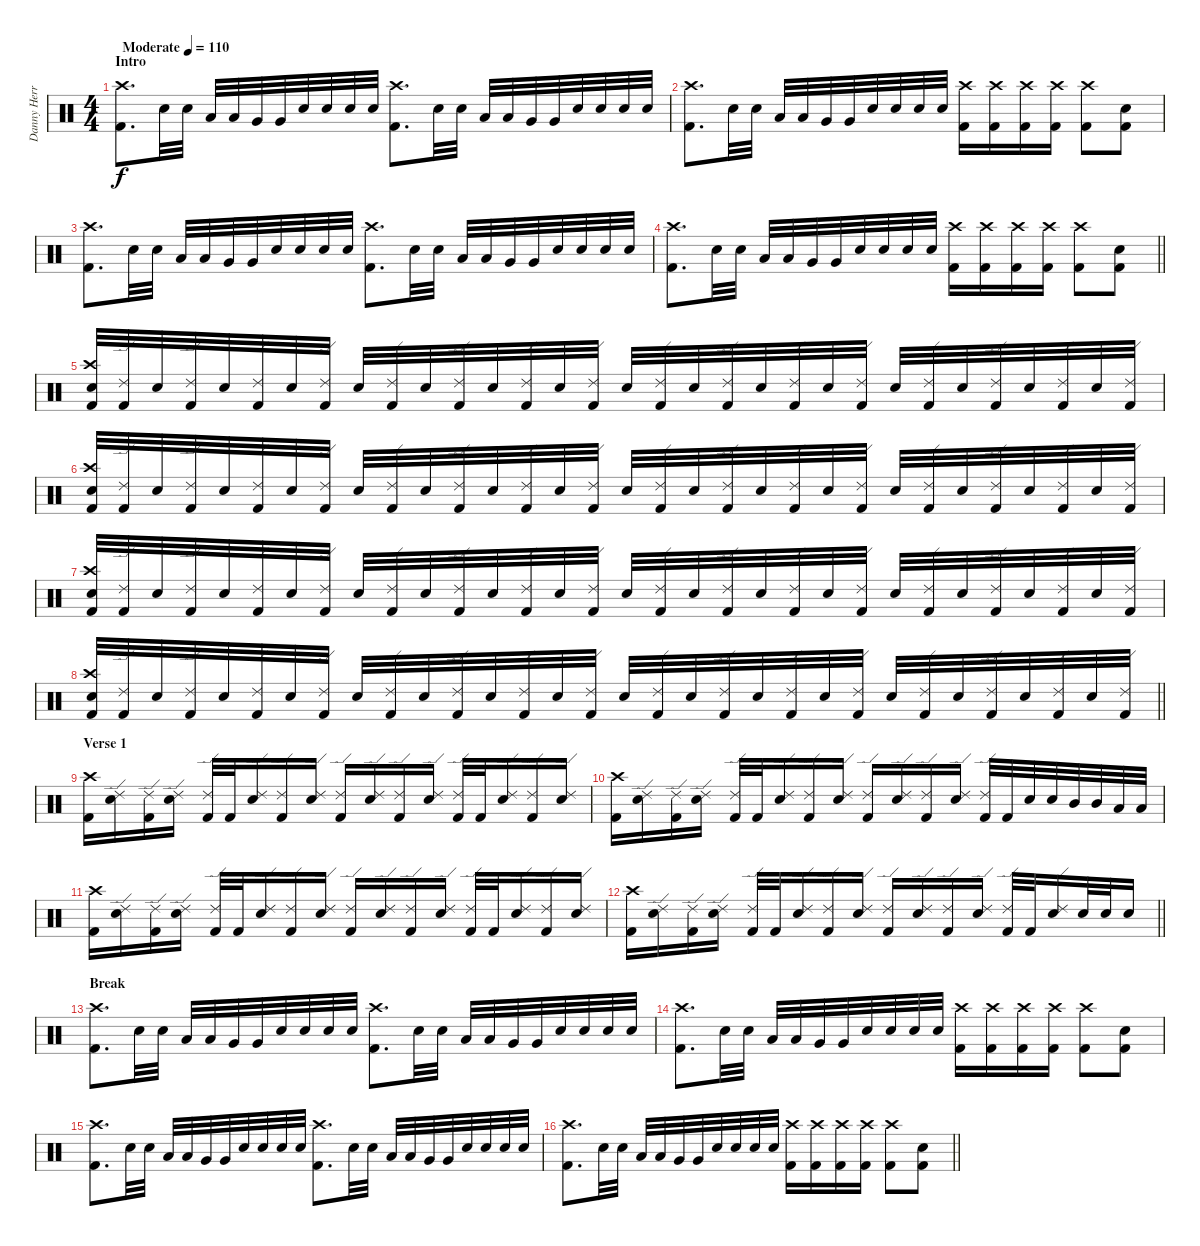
\track ("Danny Herrera" "Danny Herr") {instrument percussion}
\staff {score}
\articulation defaults
\ts (4 4)
\section ("" "Intro")
\tempo (110 "Moderate")
\clef neutral
\ks c
("Kick (hit) 2" "Crash high (hit)").8{d dy f} "Snare (hit) 2".32 "Snare (hit) 2".32 "Low Tom (hit)".32 "Low Tom (hit)".32 "Very Low Tom (hit)".32 "Very Low Tom (hit)".32 "Snare (hit) 2".32 "Snare (hit) 2".32 "Snare (hit) 2".32 "Snare (hit) 2".32 ("Kick (hit) 2" "Crash high (hit)").8{d} "Snare (hit) 2".32 "Snare (hit) 2".32 "Low Tom (hit)".32 "Low Tom (hit)".32 "Very Low Tom (hit)".32 "Very Low Tom (hit)".32 "Snare (hit) 2".32 "Snare (hit) 2".32 "Snare (hit) 2".32 "Snare (hit) 2".32 |
("Kick (hit) 2" "Crash high (hit)").8{d} "Snare (hit) 2".32 "Snare (hit) 2".32 "Low Tom (hit)".32 "Low Tom (hit)".32 "Very Low Tom (hit)".32 "Very Low Tom (hit)".32 "Snare (hit) 2".32 "Snare (hit) 2".32 "Snare (hit) 2".32 "Snare (hit) 2".32 ("Kick (hit) 2" "Crash high (hit)").16 ("Kick (hit) 2" "Crash high (hit)").16 ("Kick (hit) 2" "Crash high (hit)").16 ("Kick (hit) 2" "Crash high (hit)").16 ("Kick (hit) 2" "Crash high (hit)").8 ("Kick (hit) 2" "Snare (hit) 2").8 |
("Kick (hit) 2" "Crash high (hit)").8{d} "Snare (hit) 2".32 "Snare (hit) 2".32 "Low Tom (hit)".32 "Low Tom (hit)".32 "Very Low Tom (hit)".32 "Very Low Tom (hit)".32 "Snare (hit) 2".32 "Snare (hit) 2".32 "Snare (hit) 2".32 "Snare (hit) 2".32 ("Kick (hit) 2" "Crash high (hit)").8{d} "Snare (hit) 2".32 "Snare (hit) 2".32 "Low Tom (hit)".32 "Low Tom (hit)".32 "Very Low Tom (hit)".32 "Very Low Tom (hit)".32 "Snare (hit) 2".32 "Snare (hit) 2".32 "Snare (hit) 2".32 "Snare (hit) 2".32 |
\barLineRight lightlight
("Kick (hit) 2" "Crash high (hit)").8{d} "Snare (hit) 2".32 "Snare (hit) 2".32 "Low Tom (hit)".32 "Low Tom (hit)".32 "Very Low Tom (hit)".32 "Very Low Tom (hit)".32 "Snare (hit) 2".32 "Snare (hit) 2".32 "Snare (hit) 2".32 "Snare (hit) 2".32 ("Kick (hit) 2" "Crash high (hit)").16 ("Kick (hit) 2" "Crash high (hit)").16 ("Kick (hit) 2" "Crash high (hit)").16 ("Kick (hit) 2" "Crash high (hit)").16 ("Kick (hit) 2" "Crash high (hit)").8 ("Kick (hit) 2" "Snare (hit) 2").8 |
("Kick (hit) 2" "Snare (hit) 2" "Crash high (hit)").32 ("Kick (hit) 2" "Ride (edge) 2").32 "Snare (hit) 2".32 ("Kick (hit) 2" "Ride (edge) 2").32 "Snare (hit) 2".32 ("Kick (hit) 2" "Ride (edge) 2").32 "Snare (hit) 2".32 ("Kick (hit) 2" "Ride (edge) 2").32 "Snare (hit) 2".32 ("Kick (hit) 2" "Ride (edge) 2").32 "Snare (hit) 2".32 ("Kick (hit) 2" "Ride (edge) 2").32 "Snare (hit) 2".32 ("Kick (hit) 2" "Ride (edge) 2").32 "Snare (hit) 2".32 ("Kick (hit) 2" "Ride (edge) 2").32 "Snare (hit) 2".32 ("Kick (hit) 2" "Ride (edge) 2").32 "Snare (hit) 2".32 ("Kick (hit) 2" "Ride (edge) 2").32 "Snare (hit) 2".32 ("Kick (hit) 2" "Ride (edge) 2").32 "Snare (hit) 2".32 ("Kick (hit) 2" "Ride (edge) 2").32 "Snare (hit) 2".32 ("Kick (hit) 2" "Ride (edge) 2").32 "Snare (hit) 2".32 ("Kick (hit) 2" "Ride (edge) 2").32 "Snare (hit) 2".32 ("Kick (hit) 2" "Ride (edge) 2").32 "Snare (hit) 2".32 ("Kick (hit) 2" "Ride (edge) 2").32 |
("Kick (hit) 2" "Snare (hit) 2" "Crash high (hit)").32 ("Kick (hit) 2" "Ride (edge) 2").32 "Snare (hit) 2".32 ("Kick (hit) 2" "Ride (edge) 2").32 "Snare (hit) 2".32 ("Kick (hit) 2" "Ride (edge) 2").32 "Snare (hit) 2".32 ("Kick (hit) 2" "Ride (edge) 2").32 "Snare (hit) 2".32 ("Kick (hit) 2" "Ride (edge) 2").32 "Snare (hit) 2".32 ("Kick (hit) 2" "Ride (edge) 2").32 "Snare (hit) 2".32 ("Kick (hit) 2" "Ride (edge) 2").32 "Snare (hit) 2".32 ("Kick (hit) 2" "Ride (edge) 2").32 "Snare (hit) 2".32 ("Kick (hit) 2" "Ride (edge) 2").32 "Snare (hit) 2".32 ("Kick (hit) 2" "Ride (edge) 2").32 "Snare (hit) 2".32 ("Kick (hit) 2" "Ride (edge) 2").32 "Snare (hit) 2".32 ("Kick (hit) 2" "Ride (edge) 2").32 "Snare (hit) 2".32 ("Kick (hit) 2" "Ride (edge) 2").32 "Snare (hit) 2".32 ("Kick (hit) 2" "Ride (edge) 2").32 "Snare (hit) 2".32 ("Kick (hit) 2" "Ride (edge) 2").32 "Snare (hit) 2".32 ("Kick (hit) 2" "Ride (edge) 2").32 |
("Kick (hit) 2" "Snare (hit) 2" "Crash high (hit)").32 ("Kick (hit) 2" "Ride (edge) 2").32 "Snare (hit) 2".32 ("Kick (hit) 2" "Ride (edge) 2").32 "Snare (hit) 2".32 ("Kick (hit) 2" "Ride (edge) 2").32 "Snare (hit) 2".32 ("Kick (hit) 2" "Ride (edge) 2").32 "Snare (hit) 2".32 ("Kick (hit) 2" "Ride (edge) 2").32 "Snare (hit) 2".32 ("Kick (hit) 2" "Ride (edge) 2").32 "Snare (hit) 2".32 ("Kick (hit) 2" "Ride (edge) 2").32 "Snare (hit) 2".32 ("Kick (hit) 2" "Ride (edge) 2").32 "Snare (hit) 2".32 ("Kick (hit) 2" "Ride (edge) 2").32 "Snare (hit) 2".32 ("Kick (hit) 2" "Ride (edge) 2").32 "Snare (hit) 2".32 ("Kick (hit) 2" "Ride (edge) 2").32 "Snare (hit) 2".32 ("Kick (hit) 2" "Ride (edge) 2").32 "Snare (hit) 2".32 ("Kick (hit) 2" "Ride (edge) 2").32 "Snare (hit) 2".32 ("Kick (hit) 2" "Ride (edge) 2").32 "Snare (hit) 2".32 ("Kick (hit) 2" "Ride (edge) 2").32 "Snare (hit) 2".32 ("Kick (hit) 2" "Ride (edge) 2").32 |
\barLineRight lightlight
("Kick (hit) 2" "Snare (hit) 2" "Crash high (hit)").32 ("Kick (hit) 2" "Ride (edge) 2").32 "Snare (hit) 2".32 ("Kick (hit) 2" "Ride (edge) 2").32 "Snare (hit) 2".32 ("Kick (hit) 2" "Ride (edge) 2").32 "Snare (hit) 2".32 ("Kick (hit) 2" "Ride (edge) 2").32 "Snare (hit) 2".32 ("Kick (hit) 2" "Ride (edge) 2").32 "Snare (hit) 2".32 ("Kick (hit) 2" "Ride (edge) 2").32 "Snare (hit) 2".32 ("Kick (hit) 2" "Ride (edge) 2").32 "Snare (hit) 2".32 ("Kick (hit) 2" "Ride (edge) 2").32 "Snare (hit) 2".32 ("Kick (hit) 2" "Ride (edge) 2").32 "Snare (hit) 2".32 ("Kick (hit) 2" "Ride (edge) 2").32 "Snare (hit) 2".32 ("Kick (hit) 2" "Ride (edge) 2").32 "Snare (hit) 2".32 ("Kick (hit) 2" "Ride (edge) 2").32 "Snare (hit) 2".32 ("Kick (hit) 2" "Ride (edge) 2").32 "Snare (hit) 2".32 ("Kick (hit) 2" "Ride (edge) 2").32 "Snare (hit) 2".32 ("Kick (hit) 2" "Ride (edge) 2").32 "Snare (hit) 2".32 ("Kick (hit) 2" "Ride (edge) 2").32 |
\section ("" "Verse 1")
("Kick (hit) 2" "Crash high (hit)").16 ("Snare (hit) 2" "Ride (edge) 2").16 ("Kick (hit) 2" "Ride (edge) 2").16 ("Snare (hit) 2" "Ride (edge) 2").16 ("Kick (hit) 2" "Ride (edge) 2").32 "Kick (hit) 2".32 ("Snare (hit) 2" "Ride (edge) 2").16 ("Kick (hit) 2" "Ride (edge) 2").16 ("Snare (hit) 2" "Ride (edge) 2").16 ("Kick (hit) 2" "Ride (edge) 2").16 ("Snare (hit) 2" "Ride (edge) 2").16 ("Kick (hit) 2" "Ride (edge) 2").16 ("Snare (hit) 2" "Ride (edge) 2").16 ("Kick (hit) 2" "Ride (edge) 2").32 "Kick (hit) 2".32 ("Snare (hit) 2" "Ride (edge) 2").16 ("Kick (hit) 2" "Ride (edge) 2").16 ("Snare (hit) 2" "Ride (edge) 2").16 |
("Kick (hit) 2" "Crash high (hit)").16 ("Snare (hit) 2" "Ride (edge) 2").16 ("Kick (hit) 2" "Ride (edge) 2").16 ("Snare (hit) 2" "Ride (edge) 2").16 ("Kick (hit) 2" "Ride (edge) 2").32 "Kick (hit) 2".32 ("Snare (hit) 2" "Ride (edge) 2").16 ("Kick (hit) 2" "Ride (edge) 2").16 ("Snare (hit) 2" "Ride (edge) 2").16 ("Kick (hit) 2" "Ride (edge) 2").16 ("Snare (hit) 2" "Ride (edge) 2").16 ("Kick (hit) 2" "Ride (edge) 2").16 ("Snare (hit) 2" "Ride (edge) 2").16 ("Kick (hit) 2" "Ride (edge) 2").32 "Kick (hit) 2".32 "Snare (hit) 2".32 "Snare (hit) 2".32 "Mid Tom (hit)".32 "Mid Tom (hit)".32 "Low Tom (hit)".32 "Low Tom (hit)".32 |
("Kick (hit) 2" "Crash high (hit)").16 ("Snare (hit) 2" "Ride (edge) 2").16 ("Kick (hit) 2" "Ride (edge) 2").16 ("Snare (hit) 2" "Ride (edge) 2").16 ("Kick (hit) 2" "Ride (edge) 2").32 "Kick (hit) 2".32 ("Snare (hit) 2" "Ride (edge) 2").16 ("Kick (hit) 2" "Ride (edge) 2").16 ("Snare (hit) 2" "Ride (edge) 2").16 ("Kick (hit) 2" "Ride (edge) 2").16 ("Snare (hit) 2" "Ride (edge) 2").16 ("Kick (hit) 2" "Ride (edge) 2").16 ("Snare (hit) 2" "Ride (edge) 2").16 ("Kick (hit) 2" "Ride (edge) 2").32 "Kick (hit) 2".32 ("Snare (hit) 2" "Ride (edge) 2").16 ("Kick (hit) 2" "Ride (edge) 2").16 ("Snare (hit) 2" "Ride (edge) 2").16 |
\barLineRight lightlight
("Kick (hit) 2" "Crash high (hit)").16 ("Snare (hit) 2" "Ride (edge) 2").16 ("Kick (hit) 2" "Ride (edge) 2").16 ("Snare (hit) 2" "Ride (edge) 2").16 ("Kick (hit) 2" "Ride (edge) 2").32 "Kick (hit) 2".32 ("Snare (hit) 2" "Ride (edge) 2").16 ("Kick (hit) 2" "Ride (edge) 2").16 ("Snare (hit) 2" "Ride (edge) 2").16 ("Kick (hit) 2" "Ride (edge) 2").16 ("Snare (hit) 2" "Ride (edge) 2").16 ("Kick (hit) 2" "Ride (edge) 2").16 ("Snare (hit) 2" "Ride (edge) 2").16 ("Kick (hit) 2" "Ride (edge) 2").32 "Kick (hit) 2".32 ("Snare (hit) 2" "Ride (edge) 2").16 "Snare (hit) 2".32 "Snare (hit) 2".32 "Snare (hit) 2".16 |
\section ("" "Break")
("Kick (hit) 2" "Crash high (hit)").8{d} "Snare (hit) 2".32 "Snare (hit) 2".32 "Low Tom (hit)".32 "Low Tom (hit)".32 "Very Low Tom (hit)".32 "Very Low Tom (hit)".32 "Snare (hit) 2".32 "Snare (hit) 2".32 "Snare (hit) 2".32 "Snare (hit) 2".32 ("Kick (hit) 2" "Crash high (hit)").8{d} "Snare (hit) 2".32 "Snare (hit) 2".32 "Low Tom (hit)".32 "Low Tom (hit)".32 "Very Low Tom (hit)".32 "Very Low Tom (hit)".32 "Snare (hit) 2".32 "Snare (hit) 2".32 "Snare (hit) 2".32 "Snare (hit) 2".32 |
("Kick (hit) 2" "Crash high (hit)").8{d} "Snare (hit) 2".32 "Snare (hit) 2".32 "Low Tom (hit)".32 "Low Tom (hit)".32 "Very Low Tom (hit)".32 "Very Low Tom (hit)".32 "Snare (hit) 2".32 "Snare (hit) 2".32 "Snare (hit) 2".32 "Snare (hit) 2".32 ("Kick (hit) 2" "Crash high (hit)").16 ("Kick (hit) 2" "Crash high (hit)").16 ("Kick (hit) 2" "Crash high (hit)").16 ("Kick (hit) 2" "Crash high (hit)").16 ("Kick (hit) 2" "Crash high (hit)").8 ("Kick (hit) 2" "Snare (hit) 2").8 |
("Kick (hit) 2" "Crash high (hit)").8{d} "Snare (hit) 2".32 "Snare (hit) 2".32 "Low Tom (hit)".32 "Low Tom (hit)".32 "Very Low Tom (hit)".32 "Very Low Tom (hit)".32 "Snare (hit) 2".32 "Snare (hit) 2".32 "Snare (hit) 2".32 "Snare (hit) 2".32 ("Kick (hit) 2" "Crash high (hit)").8{d} "Snare (hit) 2".32 "Snare (hit) 2".32 "Low Tom (hit)".32 "Low Tom (hit)".32 "Very Low Tom (hit)".32 "Very Low Tom (hit)".32 "Snare (hit) 2".32 "Snare (hit) 2".32 "Snare (hit) 2".32 "Snare (hit) 2".32 |
\barLineRight lightlight
("Kick (hit) 2" "Crash high (hit)").8{d} "Snare (hit) 2".32 "Snare (hit) 2".32 "Low Tom (hit)".32 "Low Tom (hit)".32 "Very Low Tom (hit)".32 "Very Low Tom (hit)".32 "Snare (hit) 2".32 "Snare (hit) 2".32 "Snare (hit) 2".32 "Snare (hit) 2".32 ("Kick (hit) 2" "Crash high (hit)").16 ("Kick (hit) 2" "Crash high (hit)").16 ("Kick (hit) 2" "Crash high (hit)").16 ("Kick (hit) 2" "Crash high (hit)").16 ("Kick (hit) 2" "Crash high (hit)").8 ("Kick (hit) 2" "Snare (hit) 2").8
